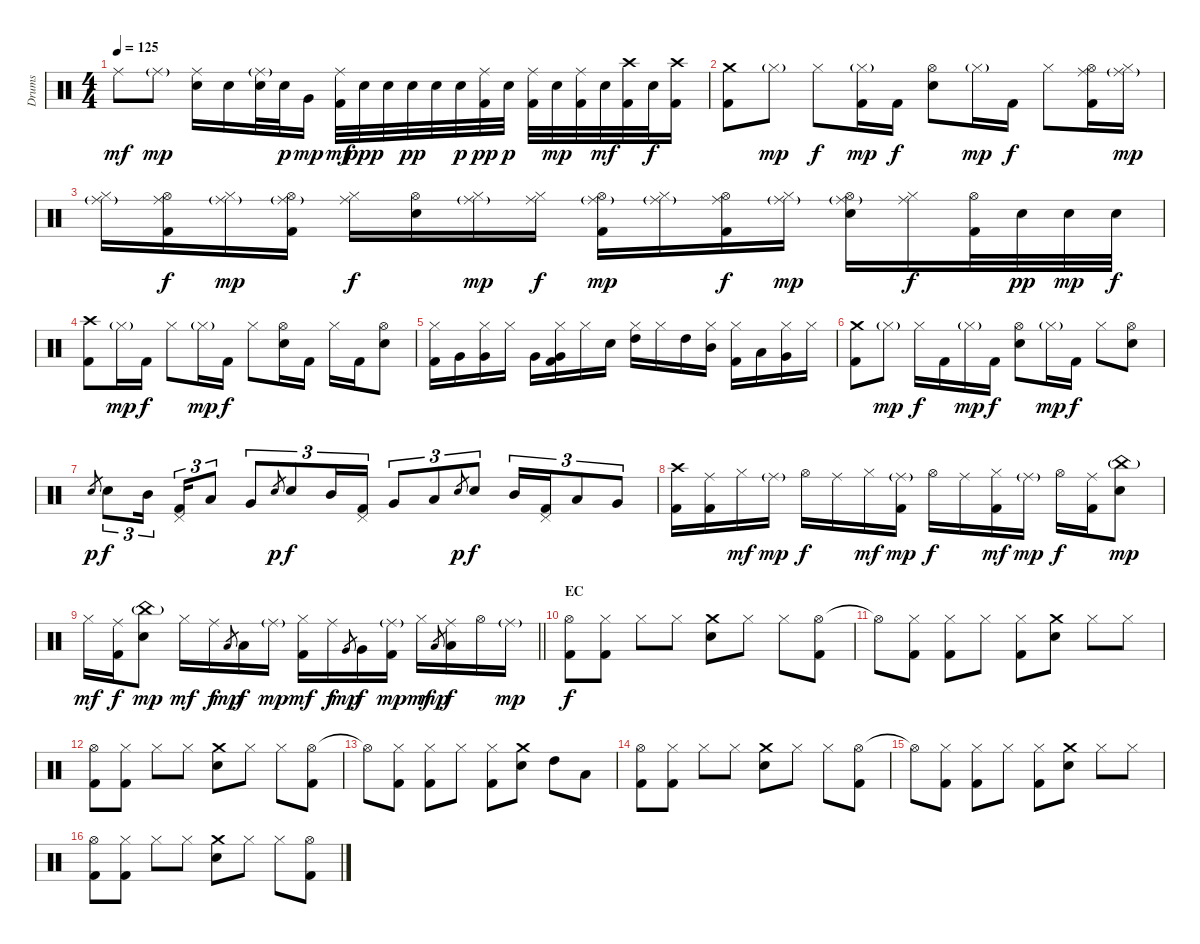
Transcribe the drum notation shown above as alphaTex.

\track ("Drums" "Drums") {instrument percussion}
\staff {score}
\articulation defaults
\ts (4 4)
\tempo 125
\clef neutral
\ks c "Ride (middle)".8{dy mf} "Ride (middle)"{g}.8{dy mp}
("Ride (middle)" "Electric Snare (hit)").16 "Electric Snare (hit)".16 ("Ride (middle)"{g} "Electric Snare (hit)").32 "Electric Snare (hit)".32{dy p} "Very Low Tom (hit)".16{dy mp} ("Ride (middle)" "Kick (hit) 2").32{dy mf} "Electric Snare (hit)".32{dy ppp} "Electric Snare (hit)".32 "Electric Snare (hit)".32{dy pp} "Electric Snare (hit)".32 "Electric Snare (hit)".32{dy p} ("Ride (middle)" "Kick (hit) 2").32{dy pp} "Electric Snare (hit)".32{dy p} ("Ride (middle)" "Kick (hit) 2").32 "Electric Snare (hit)".32{dy mp} ("Ride (middle)" "Kick (hit) 2").32 "Electric Snare (hit)".32{dy mf} ("Crash high (hit)" "Kick (hit) 2").32 "Electric Snare (hit)".32{dy f} ("Crash high (hit)" "Kick (hit) 2").16 |
("Crash medium (hit)" "Kick (hit) 2").8 "Hi-Hat (closed)"{g}.8{dy mp} "Hi-Hat (closed)".8{dy f} ("Hi-Hat (closed)"{g} "Kick (hit) 2").16{dy mp} "Kick (hit) 2".16{dy f} ("Hi-Hat (open)" "Electric Snare (hit)").8 "Hi-Hat (closed)"{g}.16{dy mp} "Kick (hit) 2".16{dy f} "Hi-Hat (closed)".8 ("Ride (middle)" "Hi-Hat (open)" "Kick (hit) 2").16 ("Ride (middle)"{g} "Hi-Hat (closed)").16{dy mp} |
("Ride (middle)"{g} "Hi-Hat (closed)").16 ("Ride (middle)" "Hi-Hat (open)" "Kick (hit) 2").16{dy f} ("Ride (middle)"{g} "Hi-Hat (closed)").16{dy mp} ("Ride (middle)"{g} "Hi-Hat (open)" "Kick (hit) 2").16 ("Ride (middle)" "Hi-Hat (closed)").16{dy f} ("Hi-Hat (open)" "Electric Snare (hit)").16 ("Ride (middle)"{g} "Hi-Hat (closed)").16{dy mp} ("Ride (middle)" "Hi-Hat (closed)").16{dy f} ("Ride (middle)"{g} "Hi-Hat (open)" "Kick (hit) 2").16{dy mp} ("Ride (middle)"{g} "Hi-Hat (closed)").16 ("Ride (middle)" "Hi-Hat (open)" "Kick (hit) 2").16{dy f} ("Ride (middle)"{g} "Hi-Hat (closed)").16{dy mp} ("Ride (middle)"{g} "Hi-Hat (open)" "Electric Snare (hit)").16 ("Ride (middle)" "Hi-Hat (closed)").16{dy f} ("Hi-Hat (open)" "Kick (hit) 2").32 "Electric Snare (hit)".32{dy pp} "Electric Snare (hit)".32{dy mp} "Electric Snare (hit)".32{dy f} |
("Crash high (hit)" "Kick (hit) 2").8 "Hi-Hat (closed)"{g}.16{dy mp} "Kick (hit) 2".16{dy f} "Hi-Hat (closed)".8 "Hi-Hat (closed)"{g}.16{dy mp} "Kick (hit) 2".16{dy f} "Hi-Hat (closed)".8 ("Hi-Hat (open)" "Electric Snare (hit)").16 "Kick (hit) 2".16 "Hi-Hat (closed)".16 "Kick (hit) 2".16 ("Hi-Hat (open)" "Electric Snare (hit)").8 |
("Hi-Hat (closed)" "Kick (hit) 2").16 "Very Low Tom (hit)".16 ("Hi-Hat (closed)" "Very Low Tom (hit)").16 "Hi-Hat (closed)".16 "Very Low Tom (hit)".16 ("Hi-Hat (closed)" "Very Low Tom (hit)" "Kick (hit) 2").16 "Hi-Hat (closed)".16 "Electric Snare (hit)".16 ("Hi-Hat (closed)" "High Tom (hit)").16 "Hi-Hat (closed)".16 "High Tom (hit)".16 ("Hi-Hat (closed)" "Mid Tom (hit)").16 ("Hi-Hat (closed)" "Kick (hit) 2").16 "Low Tom (hit)".16 ("Hi-Hat (closed)" "Very Low Tom (hit)").16 "Hi-Hat (closed)".16 |
("Crash medium (hit)" "Kick (hit) 2").8 "Hi-Hat (closed)"{g}.8{dy mp} "Hi-Hat (closed)".16{dy f} "Kick (hit) 2".16 "Hi-Hat (closed)"{g}.16{dy mp} "Kick (hit) 2".16{dy f} ("Hi-Hat (open)" "Electric Snare (hit)").8 "Hi-Hat (closed)"{g}.16{dy mp} "Kick (hit) 2".16{dy f} "Hi-Hat (closed)".8 ("Hi-Hat (open)" "Electric Snare (hit)").8 |
"Electric Snare (hit)".8{gr dy p} "Electric Snare (hit)".8{tu (3 2) dy f} "Mid Tom (hit)".16{tu (3 2) beam splitsecondary} ("Pedal Hi-Hat (hit)" "Kick (hit) 2").16{tu (3 2)} "Low Tom (hit)".8{tu (3 2)} "Very Low Tom (hit)".8{tu (3 2)} "Electric Snare (hit)".8{gr dy p} "Electric Snare (hit)".8{tu (3 2) dy f} "Mid Tom (hit)".16{tu (3 2)} ("Pedal Hi-Hat (hit)" "Kick (hit) 2").16{tu (3 2)} "Very Low Tom (hit)".8{tu (3 2)} "Low Floor Tom (hit)".8{tu (3 2)} "Electric Snare (hit)".8{gr dy p} "Electric Snare (hit)".8{tu (3 2) dy f} "Mid Tom (hit)".16{tu (3 2)} ("Pedal Hi-Hat (hit)" "Kick (hit) 2").16{tu (3 2)} "Low Tom (hit)".8{tu (3 2)} "Very Low Tom (hit)".8{tu (3 2)} |
("Crash high (hit)" "Kick (hit) 2").16 ("Ride (middle)" "Kick (hit) 2").16 "Hi-Hat (closed)".16{dy mf} "Ride (middle)"{g}.16{dy mp} "Hi-Hat (open)".16{dy f} "Ride (middle)".16 "Hi-Hat (closed)".16{dy mf} ("Ride (middle)"{g} "Kick (hit) 2").16{dy mp} "Hi-Hat (open)".16{dy f} "Ride (middle)".16 ("Hi-Hat (closed)" "Kick (hit) 2").16{dy mf} "Ride (middle)"{g}.16{dy mp} "Hi-Hat (open)".16{dy f} ("Ride (middle)" "Kick (hit) 2").16 ("China (hit)"{g} "Electric Snare (hit)").8{dy mp} |
\barLineRight lightlight "Hi-Hat (closed)".16{dy mf}
("Ride (middle)" "Kick (hit) 2").16{dy f} ("China (hit)"{g} "Electric Snare (hit)").8{dy mp} "Hi-Hat (closed)".16{dy mf} "Ride (middle)".16{dy f} "Low Tom (hit)".8{gr dy mp} "Low Tom (hit)".16{dy f} "Ride (middle)"{g}.16{dy mp} ("Hi-Hat (closed)" "Kick (hit) 2").16{dy mf} "Ride (middle)".16{dy f} "Very Low Tom (hit)".8{gr dy mp} "Very Low Tom (hit)".16{dy f} ("Ride (middle)"{g} "Kick (hit) 2").16{dy mp} "Hi-Hat (closed)".16{dy mf} "Low Floor Tom (hit)".8{gr dy mp} ("Ride (middle)" "Low Floor Tom (hit)").16{dy f} "Hi-Hat (open)".16 "Ride (middle)"{g}.16{dy mp} |
\section ("" "EC")
("Hi-Hat (open)" "Kick (hit) 2").8{dy f} ("Hi-Hat (closed)" "Kick (hit) 2").8 "Hi-Hat (closed)".8 "Hi-Hat (closed)".8 ("Crash medium (hit)" "Electric Snare (hit)").8 "Hi-Hat (closed)".8 "Hi-Hat (closed)".8 ("Hi-Hat (open)" "Kick (hit) 2").8 |
"Hi-Hat (open)"{t}.8 ("Hi-Hat (closed)" "Kick (hit) 2").8 ("Hi-Hat (closed)" "Kick (hit) 2").8 "Hi-Hat (closed)".8 ("Hi-Hat (closed)" "Kick (hit) 2").8 ("Crash medium (hit)" "Electric Snare (hit)").8 "Hi-Hat (closed)".8 "Hi-Hat (closed)".8 |
("Hi-Hat (open)" "Kick (hit) 2").8 ("Hi-Hat (closed)" "Kick (hit) 2").8 "Hi-Hat (closed)".8 "Hi-Hat (closed)".8 ("Crash medium (hit)" "Electric Snare (hit)").8 "Hi-Hat (closed)".8 "Hi-Hat (closed)".8 ("Hi-Hat (open)" "Kick (hit) 2").8 |
"Hi-Hat (open)"{t}.8 ("Hi-Hat (closed)" "Kick (hit) 2").8 ("Hi-Hat (closed)" "Kick (hit) 2").8 "Hi-Hat (closed)".8 ("Hi-Hat (closed)" "Kick (hit) 2").8 ("Crash medium (hit)" "Electric Snare (hit)").8 "High Tom (hit)".8 "Low Tom (hit)".8 |
("Hi-Hat (open)" "Kick (hit) 2").8 ("Hi-Hat (closed)" "Kick (hit) 2").8 "Hi-Hat (closed)".8 "Hi-Hat (closed)".8 ("Crash medium (hit)" "Electric Snare (hit)").8 "Hi-Hat (closed)".8 "Hi-Hat (closed)".8 ("Hi-Hat (open)" "Kick (hit) 2").8 |
"Hi-Hat (open)"{t}.8 ("Hi-Hat (closed)" "Kick (hit) 2").8 ("Hi-Hat (closed)" "Kick (hit) 2").8 "Hi-Hat (closed)".8 ("Hi-Hat (closed)" "Kick (hit) 2").8 ("Crash medium (hit)" "Electric Snare (hit)").8 "Hi-Hat (closed)".8 "Hi-Hat (closed)".8 |
("Hi-Hat (open)" "Kick (hit) 2").8 ("Hi-Hat (closed)" "Kick (hit) 2").8 "Hi-Hat (closed)".8 "Hi-Hat (closed)".8 ("Crash medium (hit)" "Electric Snare (hit)").8 "Hi-Hat (closed)".8 "Hi-Hat (closed)".8 ("Hi-Hat (open)" "Kick (hit) 2").8
